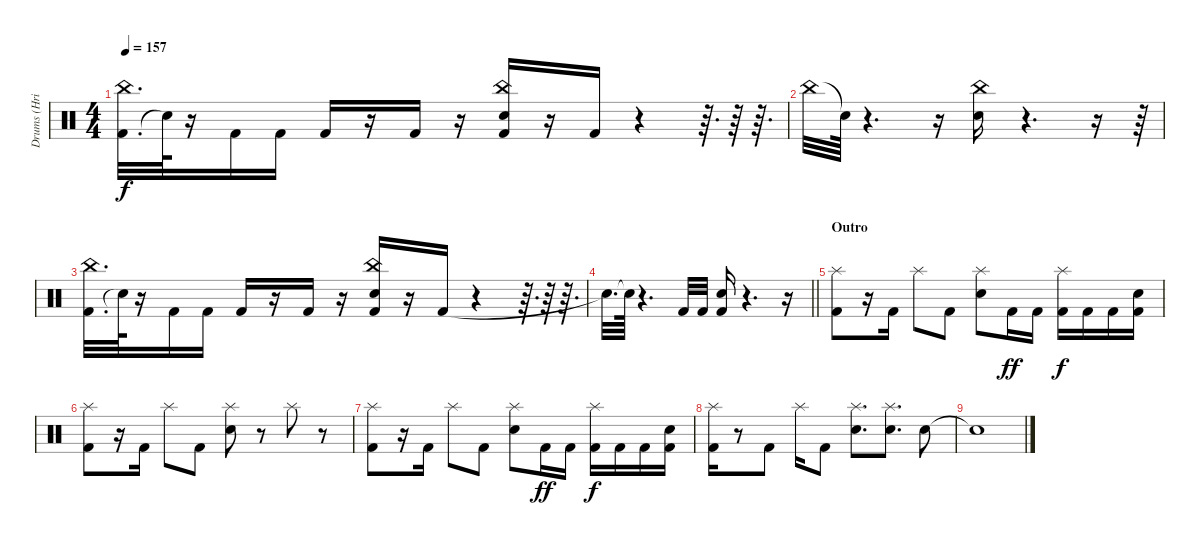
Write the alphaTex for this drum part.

\track ("Drums (Hriso)" "Drums (Hri") {instrument percussion}
\staff {score}
\articulation defaults
\ts (4 4)
\tempo 157
\clef neutral
\ks c
("Kick (hit) 2" "China (hit)").32{d dy f} "Snare (hit)"{t}.64 r.16 "Kick (hit) 2".16 "Kick (hit) 2".16 "Kick (hit) 2".16 r.16 "Kick (hit) 2".16 r.16 ("Kick (hit) 2" "Snare (hit) 2" "China (hit)").16 r.16 "Kick (hit) 2".16 r.4 r.64{d} r.64 r.64{d} |
"China (hit)".32 "Snare (hit)"{t}.64 r.4{d} r.16 ("Snare (hit) 2" "China (hit)").16 r.4{d} r.16 r.64 |
("Kick (hit) 2" "China (hit)").32{d} "Snare (hit)"{t}.64 r.16 "Kick (hit) 2".16 "Kick (hit) 2".16 "Kick (hit) 2".16 r.16 "Kick (hit) 2".16 r.16 ("Kick (hit) 2" "Snare (hit) 2" "China (hit)").16 r.16 "Kick (hit) 2".16 r.4 r.64{d} r.64 r.64{d} |
\barLineRight lightlight "Snare (hit)"{t}.32{d} "Snare (hit)"{t}.64
r.4{d} "Kick (hit) 2".32 "Kick (hit) 2".32 ("Kick (hit) 2" "Snare (hit) 2").16 r.4{d} r.16 |
\section ("" "Outro")
("Splash (hit)" "Kick (hit) 2").8 r.16 "Kick (hit) 2".16 "Splash (hit)".8 "Kick (hit) 2".8 ("Snare (hit) 2" "Splash (hit)").8 "Kick (hit) 2".16{dy ff} "Kick (hit) 2".16 ("Splash (hit)" "Kick (hit) 2").16{dy f} "Kick (hit) 2".16 "Kick (hit) 2".16 ("Snare (hit) 2" "Kick (hit) 2").16 |
("Kick (hit) 2" "Splash (hit)").8 r.16 "Kick (hit) 2".16 "Splash (hit)".8 "Kick (hit) 2".8 ("Splash (hit)" "Snare (hit) 2").8 r.8 "Splash (hit)".8 r.8 |
("Splash (hit)" "Kick (hit) 2").8 r.16 "Kick (hit) 2".16 "Splash (hit)".8 "Kick (hit) 2".8 ("Snare (hit) 2" "Splash (hit)").8 "Kick (hit) 2".16{dy ff} "Kick (hit) 2".16 ("Splash (hit)" "Kick (hit) 2").16{dy f} "Kick (hit) 2".16 "Kick (hit) 2".16 ("Snare (hit) 2" "Kick (hit) 2").16 |
("Kick (hit) 2" "Splash (hit)").16 r.8 "Kick (hit) 2".8 "Splash (hit)".16 "Kick (hit) 2".8 ("Splash (hit)" "Snare (hit) 2").8{d} ("Splash (hit)" "Snare (hit) 2").8{d} "Snare (hit) 2".8 |
"Snare (hit)"{t}.1
